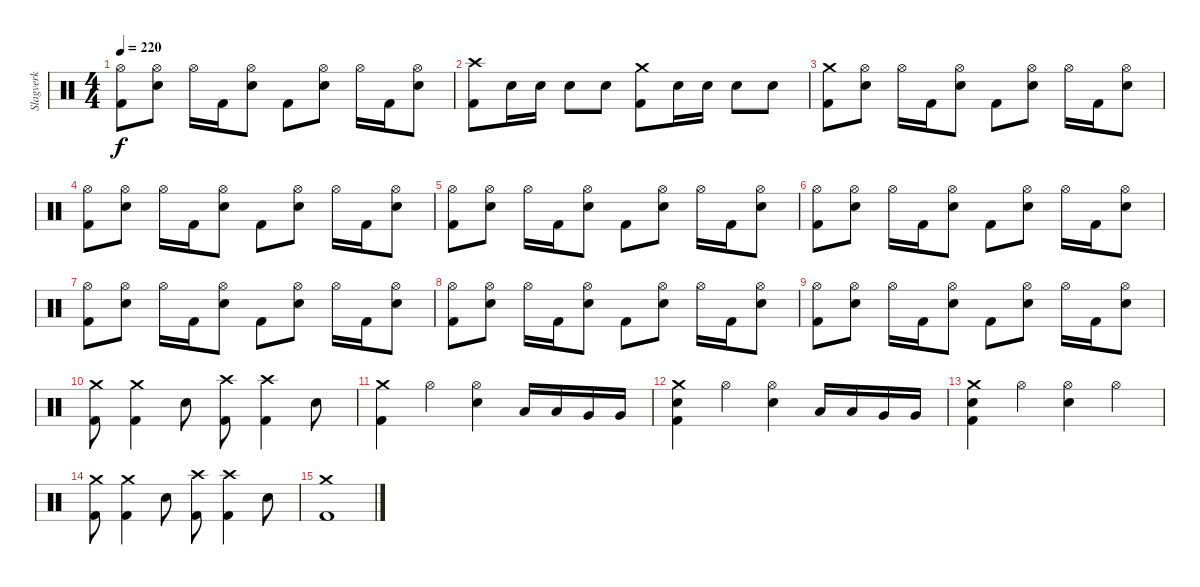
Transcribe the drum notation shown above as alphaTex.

\track ("Slagverk" "Slagverk") {instrument percussion}
\staff {score}
\articulation defaults
\ts (4 4)
\tempo 220
\clef neutral
\ks c
("Hi-Hat (open)" "Kick (hit) 2").8{dy f} ("Electric Snare (hit)" "Hi-Hat (open)").8 "Hi-Hat (open)".16 "Kick (hit) 2".16 ("Electric Snare (hit)" "Hi-Hat (open)").8 "Kick (hit) 2".8 ("Electric Snare (hit)" "Hi-Hat (open)").8 "Hi-Hat (open)".16 "Kick (hit) 2".16 ("Electric Snare (hit)" "Hi-Hat (open)").8 |
("Crash high (hit)" "Kick (hit) 2").8 "Electric Snare (hit)".16 "Electric Snare (hit)".16 "Electric Snare (hit)".8 "Electric Snare (hit)".8 ("Crash medium (hit)" "Kick (hit) 2").8 "Electric Snare (hit)".16 "Electric Snare (hit)".16 "Electric Snare (hit)".8 "Electric Snare (hit)".8 |
("Crash medium (hit)" "Kick (hit) 2").8 ("Electric Snare (hit)" "Hi-Hat (open)").8 "Hi-Hat (open)".16 "Kick (hit) 2".16 ("Electric Snare (hit)" "Hi-Hat (open)").8 "Kick (hit) 2".8 ("Electric Snare (hit)" "Hi-Hat (open)").8 "Hi-Hat (open)".16 "Kick (hit) 2".16 ("Electric Snare (hit)" "Hi-Hat (open)").8 |
("Hi-Hat (open)" "Kick (hit) 2").8 ("Electric Snare (hit)" "Hi-Hat (open)").8 "Hi-Hat (open)".16 "Kick (hit) 2".16 ("Electric Snare (hit)" "Hi-Hat (open)").8 "Kick (hit) 2".8 ("Electric Snare (hit)" "Hi-Hat (open)").8 "Hi-Hat (open)".16 "Kick (hit) 2".16 ("Electric Snare (hit)" "Hi-Hat (open)").8 |
("Hi-Hat (open)" "Kick (hit) 2").8 ("Electric Snare (hit)" "Hi-Hat (open)").8 "Hi-Hat (open)".16 "Kick (hit) 2".16 ("Electric Snare (hit)" "Hi-Hat (open)").8 "Kick (hit) 2".8 ("Electric Snare (hit)" "Hi-Hat (open)").8 "Hi-Hat (open)".16 "Kick (hit) 2".16 ("Electric Snare (hit)" "Hi-Hat (open)").8 |
("Hi-Hat (open)" "Kick (hit) 2").8 ("Electric Snare (hit)" "Hi-Hat (open)").8 "Hi-Hat (open)".16 "Kick (hit) 2".16 ("Electric Snare (hit)" "Hi-Hat (open)").8 "Kick (hit) 2".8 ("Electric Snare (hit)" "Hi-Hat (open)").8 "Hi-Hat (open)".16 "Kick (hit) 2".16 ("Electric Snare (hit)" "Hi-Hat (open)").8 |
("Hi-Hat (open)" "Kick (hit) 2").8 ("Electric Snare (hit)" "Hi-Hat (open)").8 "Hi-Hat (open)".16 "Kick (hit) 2".16 ("Electric Snare (hit)" "Hi-Hat (open)").8 "Kick (hit) 2".8 ("Electric Snare (hit)" "Hi-Hat (open)").8 "Hi-Hat (open)".16 "Kick (hit) 2".16 ("Electric Snare (hit)" "Hi-Hat (open)").8 |
("Hi-Hat (open)" "Kick (hit) 2").8 ("Electric Snare (hit)" "Hi-Hat (open)").8 "Hi-Hat (open)".16 "Kick (hit) 2".16 ("Electric Snare (hit)" "Hi-Hat (open)").8 "Kick (hit) 2".8 ("Electric Snare (hit)" "Hi-Hat (open)").8 "Hi-Hat (open)".16 "Kick (hit) 2".16 ("Electric Snare (hit)" "Hi-Hat (open)").8 |
("Hi-Hat (open)" "Kick (hit) 2").8 ("Electric Snare (hit)" "Hi-Hat (open)").8 "Hi-Hat (open)".16 "Kick (hit) 2".16 ("Electric Snare (hit)" "Hi-Hat (open)").8 "Kick (hit) 2".8 ("Electric Snare (hit)" "Hi-Hat (open)").8 "Hi-Hat (open)".16 "Kick (hit) 2".16 ("Electric Snare (hit)" "Hi-Hat (open)").8 |
("Crash medium (hit)" "Kick (hit) 2").8 ("Crash medium (hit)" "Kick (hit) 2").4 "Electric Snare (hit)".8 ("Crash high (hit)" "Kick (hit) 2").8 ("Crash high (hit)" "Kick (hit) 2").4 "Electric Snare (hit)".8 |
("Kick (hit) 2" "Crash medium (hit)").4 "Hi-Hat (open)".4 ("Electric Snare (hit)" "Hi-Hat (open)").4 "Low Tom (hit)".16 "Low Tom (hit)".16 "Very Low Tom (hit)".16 "Very Low Tom (hit)".16 |
("Kick (hit) 2" "Electric Snare (hit)" "Crash medium (hit)").4 "Hi-Hat (open)".4 ("Electric Snare (hit)" "Hi-Hat (open)").4 "Low Tom (hit)".16 "Low Tom (hit)".16 "Very Low Tom (hit)".16 "Very Low Tom (hit)".16 |
("Kick (hit) 2" "Electric Snare (hit)" "Crash medium (hit)").4 "Hi-Hat (open)".4 ("Electric Snare (hit)" "Hi-Hat (open)").4 "Hi-Hat (open)".4 |
("Crash medium (hit)" "Kick (hit) 2").8 ("Crash medium (hit)" "Kick (hit) 2").4 "Electric Snare (hit)".8 ("Crash high (hit)" "Kick (hit) 2").8 ("Crash high (hit)" "Kick (hit) 2").4 "Electric Snare (hit)".8 |
("Crash medium (hit)" "Kick (hit) 2").1
